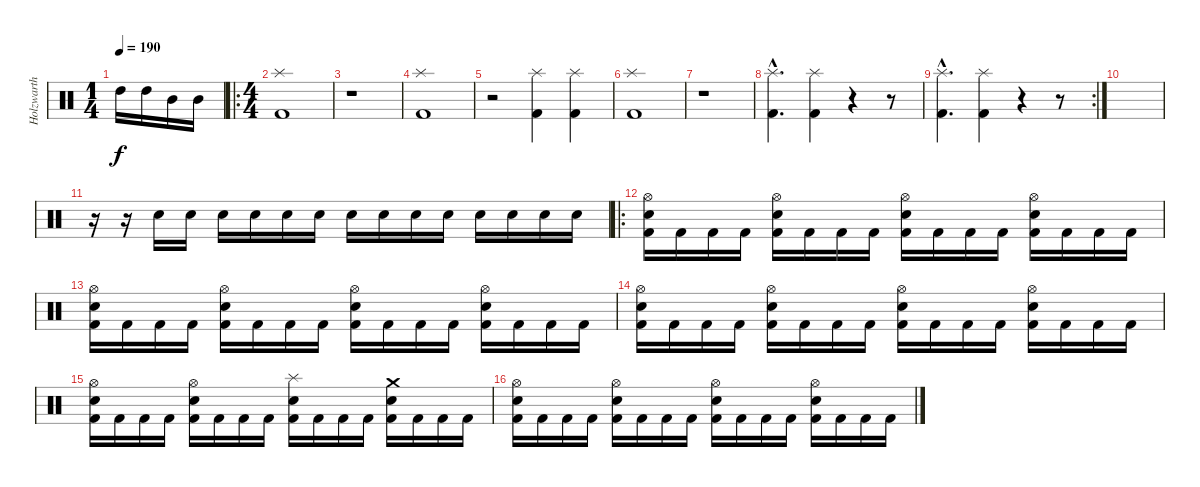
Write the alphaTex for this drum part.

\track ("Holzwarth" "Holzwarth") {instrument percussion}
\staff {score}
\articulation defaults
\ts (1 4)
\tempo 190
\clef neutral
\ks c "High Tom (hit)".16{dy f} "High Tom (hit)".16 "Mid Tom (hit)".16 "Mid Tom (hit)".16
|
\ro
\ts (4 4)
("Splash (hit)" "Kick (hit) 2").1 |
r.1 |
("Splash (hit)" "Kick (hit) 2").1 |
r.2 ("Splash (hit)" "Kick (hit) 2").4 ("Splash (hit)" "Kick (hit) 2").4 |
("Splash (hit)" "Kick (hit) 2").1 |
r.1 |
("Splash (hit)"{hac} "Kick (hit) 2"{hac}).4{d} ("Splash (hit)" "Kick (hit) 2").4 r.4 r.8 |
\rc 2
("Splash (hit)"{hac} "Kick (hit) 2"{hac}).4{d} ("Splash (hit)" "Kick (hit) 2").4 r.4 r.8 |
|
r.16{volume 5} r.16{volume 13} "Snare (hit) 2".16 "Snare (hit) 2".16 "Snare (hit) 2".16 "Snare (hit) 2".16 "Snare (hit) 2".16 "Snare (hit) 2".16 "Snare (hit) 2".16 "Snare (hit) 2".16 "Snare (hit) 2".16 "Snare (hit) 2".16 "Snare (hit) 2".16 "Snare (hit) 2".16 "Snare (hit) 2".16 "Snare (hit) 2".16 |
\ro
("Hi-Hat (open)" "Snare (hit) 2" "Kick (hit) 2").16 "Kick (hit) 2".16 "Kick (hit) 2".16 "Kick (hit) 2".16 ("Hi-Hat (open)" "Snare (hit) 2" "Kick (hit) 2").16 "Kick (hit) 2".16 "Kick (hit) 2".16 "Kick (hit) 2".16 ("Hi-Hat (open)" "Snare (hit) 2" "Kick (hit) 2").16 "Kick (hit) 2".16 "Kick (hit) 2".16 "Kick (hit) 2".16 ("Hi-Hat (open)" "Snare (hit) 2" "Kick (hit) 2").16 "Kick (hit) 2".16 "Kick (hit) 2".16 "Kick (hit) 2".16 |
("Hi-Hat (open)" "Snare (hit) 2" "Kick (hit) 2").16 "Kick (hit) 2".16 "Kick (hit) 2".16 "Kick (hit) 2".16 ("Hi-Hat (open)" "Snare (hit) 2" "Kick (hit) 2").16 "Kick (hit) 2".16 "Kick (hit) 2".16 "Kick (hit) 2".16 ("Hi-Hat (open)" "Snare (hit) 2" "Kick (hit) 2").16 "Kick (hit) 2".16 "Kick (hit) 2".16 "Kick (hit) 2".16 ("Hi-Hat (open)" "Snare (hit) 2" "Kick (hit) 2").16 "Kick (hit) 2".16 "Kick (hit) 2".16 "Kick (hit) 2".16 |
("Hi-Hat (open)" "Snare (hit) 2" "Kick (hit) 2").16 "Kick (hit) 2".16 "Kick (hit) 2".16 "Kick (hit) 2".16 ("Hi-Hat (open)" "Snare (hit) 2" "Kick (hit) 2").16 "Kick (hit) 2".16 "Kick (hit) 2".16 "Kick (hit) 2".16 ("Hi-Hat (open)" "Snare (hit) 2" "Kick (hit) 2").16 "Kick (hit) 2".16 "Kick (hit) 2".16 "Kick (hit) 2".16 ("Hi-Hat (open)" "Snare (hit) 2" "Kick (hit) 2").16 "Kick (hit) 2".16 "Kick (hit) 2".16 "Kick (hit) 2".16 |
("Hi-Hat (open)" "Snare (hit) 2" "Kick (hit) 2").16 "Kick (hit) 2".16 "Kick (hit) 2".16 "Kick (hit) 2".16 ("Hi-Hat (open)" "Snare (hit) 2" "Kick (hit) 2").16 "Kick (hit) 2".16 "Kick (hit) 2".16 "Kick (hit) 2".16 ("Splash (hit)" "Snare (hit) 2" "Kick (hit) 2").16 "Kick (hit) 2".16 "Kick (hit) 2".16 "Kick (hit) 2".16 ("Crash medium (hit)" "Snare (hit) 2" "Kick (hit) 2").16 "Kick (hit) 2".16 "Kick (hit) 2".16 "Kick (hit) 2".16 |
("Hi-Hat (open)" "Snare (hit) 2" "Kick (hit) 2").16 "Kick (hit) 2".16 "Kick (hit) 2".16 "Kick (hit) 2".16 ("Hi-Hat (open)" "Snare (hit) 2" "Kick (hit) 2").16 "Kick (hit) 2".16 "Kick (hit) 2".16 "Kick (hit) 2".16 ("Hi-Hat (open)" "Snare (hit) 2" "Kick (hit) 2").16 "Kick (hit) 2".16 "Kick (hit) 2".16 "Kick (hit) 2".16 ("Hi-Hat (open)" "Snare (hit) 2" "Kick (hit) 2").16 "Kick (hit) 2".16 "Kick (hit) 2".16 "Kick (hit) 2".16
